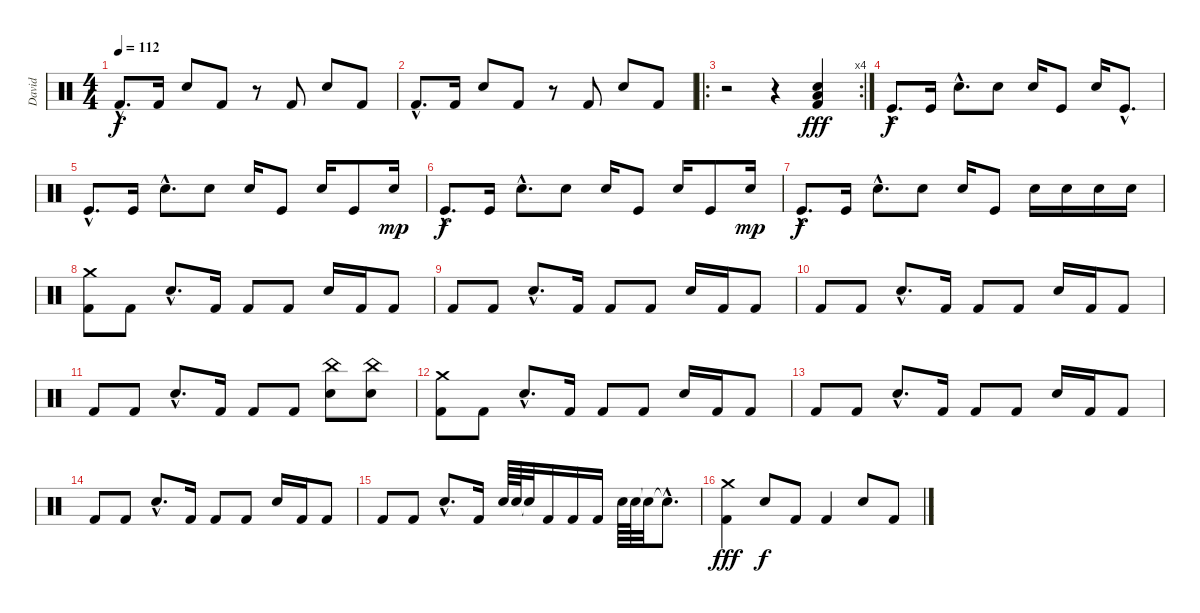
\track ("David" "David") {instrument percussion}
\staff {score}
\articulation defaults
\ts (4 4)
\tempo 112
\clef neutral
\ks c "Kick (hit) 2"{hac}.8{d dy f} "Kick (hit) 2".16 "Snare (hit) 2".8 "Kick (hit) 2".8
r.8 "Kick (hit) 2".8 "Snare (hit) 2".8 "Kick (hit) 2".8 |
"Kick (hit) 2"{hac}.8{d} "Kick (hit) 2".16 "Snare (hit) 2".8 "Kick (hit) 2".8 r.8 "Kick (hit) 2".8 "Snare (hit) 2".8 "Kick (hit) 2".8 |
\ro
\rc 4
r.2 r.4 ("Snare (hit) 2" "Low Floor Tom (hit)" "Kick (hit) 2").4{dy fff} |
"Kick (hit)"{hac}.8{d dy f} "Kick (hit)".16 "Electric Snare (hit)"{hac}.8{d} "Electric Snare (hit)".8 "Electric Snare (hit)".16 "Kick (hit)".8 "Electric Snare (hit)".16 "Kick (hit)"{hac}.8{d} |
"Kick (hit)"{hac}.8{d} "Kick (hit)".16 "Electric Snare (hit)"{hac}.8{d} "Electric Snare (hit)".8 "Electric Snare (hit)".16 "Kick (hit)".8 "Electric Snare (hit)".16 "Kick (hit)".8 "Electric Snare (hit)".16{dy mp} |
"Kick (hit)"{hac}.8{d dy f} "Kick (hit)".16 "Electric Snare (hit)"{hac}.8{d} "Electric Snare (hit)".8 "Electric Snare (hit)".16 "Kick (hit)".8 "Electric Snare (hit)".16 "Kick (hit)".8 "Electric Snare (hit)".16{dy mp} |
"Kick (hit)"{hac}.8{d dy f} "Kick (hit)".16 "Electric Snare (hit)"{hac}.8{d} "Electric Snare (hit)".8 "Electric Snare (hit)".16 "Kick (hit)".8 "Snare (hit) 2".16 "Snare (hit) 2".16 "Snare (hit) 2".16 "Snare (hit) 2".16 |
("Crash medium (hit)" "Kick (hit) 2").8 "Kick (hit) 2".8 "Snare (hit) 2"{hac}.8{d} "Kick (hit) 2".16 "Kick (hit) 2".8 "Kick (hit) 2".8 "Snare (hit) 2".16 "Kick (hit) 2".16 "Kick (hit) 2".8 |
"Kick (hit) 2".8 "Kick (hit) 2".8 "Snare (hit) 2"{hac}.8{d} "Kick (hit) 2".16 "Kick (hit) 2".8 "Kick (hit) 2".8 "Snare (hit) 2".16 "Kick (hit) 2".16 "Kick (hit) 2".8 |
"Kick (hit) 2".8 "Kick (hit) 2".8 "Snare (hit) 2"{hac}.8{d} "Kick (hit) 2".16 "Kick (hit) 2".8 "Kick (hit) 2".8 "Snare (hit) 2".16 "Kick (hit) 2".16 "Kick (hit) 2".8 |
"Kick (hit) 2".8 "Kick (hit) 2".8 "Snare (hit) 2"{hac}.8{d} "Kick (hit) 2".16 "Kick (hit) 2".8 "Kick (hit) 2".8 ("China (hit)" "Snare (hit) 2").8 ("China (hit)" "Snare (hit) 2").8 |
("Crash medium (hit)" "Kick (hit) 2").8 "Kick (hit) 2".8 "Snare (hit) 2"{hac}.8{d} "Kick (hit) 2".16 "Kick (hit) 2".8 "Kick (hit) 2".8 "Snare (hit) 2".16 "Kick (hit) 2".16 "Kick (hit) 2".8 |
"Kick (hit) 2".8 "Kick (hit) 2".8 "Snare (hit) 2"{hac}.8{d} "Kick (hit) 2".16 "Kick (hit) 2".8 "Kick (hit) 2".8 "Snare (hit) 2".16 "Kick (hit) 2".16 "Kick (hit) 2".8 |
"Kick (hit) 2".8 "Kick (hit) 2".8 "Snare (hit) 2"{hac}.8{d} "Kick (hit) 2".16 "Kick (hit) 2".8 "Kick (hit) 2".8 "Snare (hit) 2".16 "Kick (hit) 2".16 "Kick (hit) 2".8 |
"Kick (hit) 2".8 "Kick (hit) 2".8 "Snare (hit) 2"{hac}.8{d} "Kick (hit) 2".16 "Snare (hit) 2".64 "Snare (hit) 2".64 "Snare (hit)"{t}.32 "Kick (hit) 2".16 "Kick (hit) 2".16 "Kick (hit) 2".16 "Snare (hit) 2".64 "Snare (hit) 2".64 "Snare (hit)"{t}.32 "Snare (hit)"{hac t}.8{d} |
("Crash medium (hit)" "Kick (hit) 2").4{dy fff} "Snare (hit) 2".8{dy f} "Kick (hit) 2".8 "Kick (hit) 2".4 "Snare (hit) 2".8 "Kick (hit) 2".8
